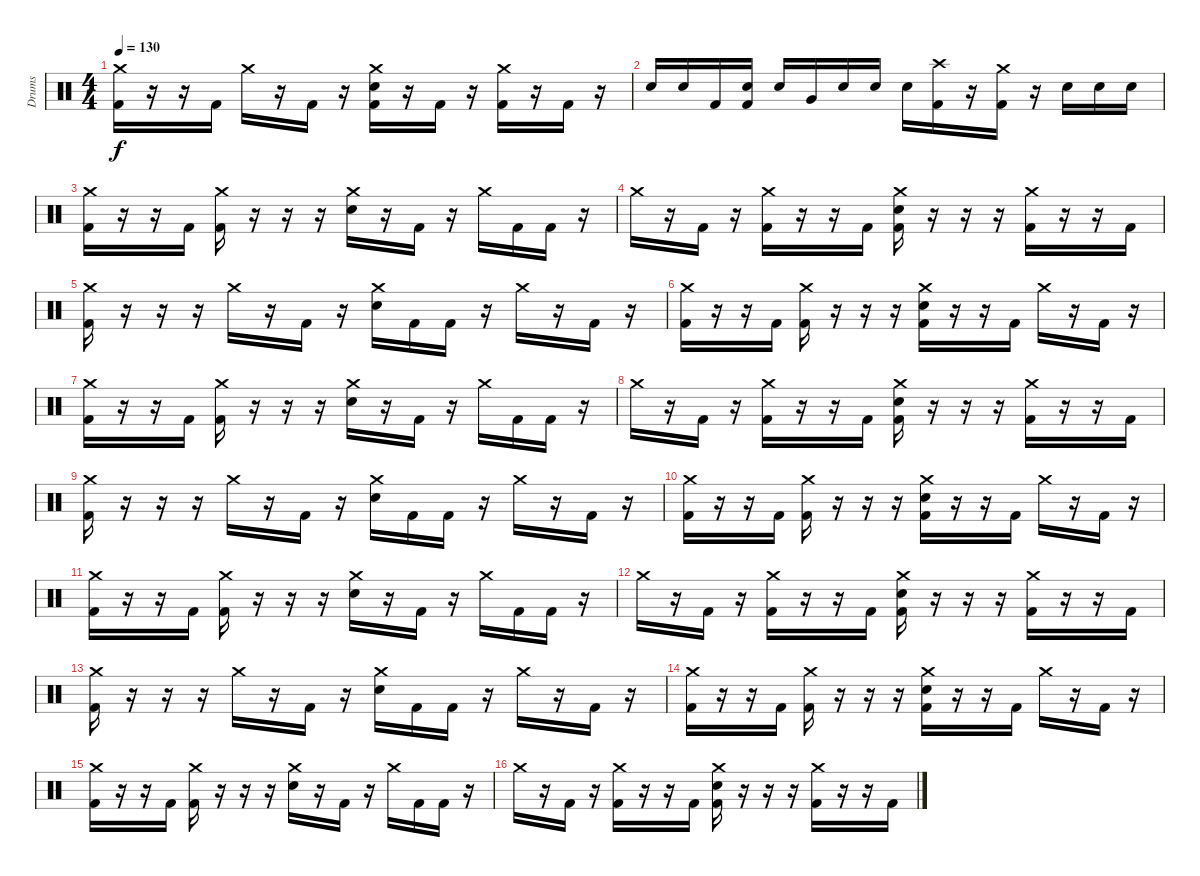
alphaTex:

\track ("Drums" "Drums") {instrument percussion}
\staff {score}
\articulation defaults
\ts (4 4)
\tempo 130
\clef neutral
\ks c
("Crash medium (hit)" "Kick (hit) 2").16{dy f} r.16 r.16 "Kick (hit) 2".16 "Crash medium (hit)".16 r.16 "Kick (hit) 2".16 r.16 ("Crash medium (hit)" "Electric Snare (hit)" "Kick (hit) 2").16 r.16 "Kick (hit) 2".16 r.16 ("Crash medium (hit)" "Kick (hit) 2").16 r.16 "Kick (hit) 2".16 r.16 |
"Electric Snare (hit)".16 "Electric Snare (hit)".16 "Kick (hit) 2".16 ("Electric Snare (hit)" "Kick (hit) 2").16 "Electric Snare (hit)".16 "Very Low Tom (hit)".16 "Electric Snare (hit)".16 "Electric Snare (hit)".16 "Electric Snare (hit)".16 ("Crash high (hit)" "Kick (hit) 2").16 r.16 ("Crash medium (hit)" "Kick (hit) 2").16 r.16 "Electric Snare (hit)".16 "Electric Snare (hit)".16 "Electric Snare (hit)".16 |
("Crash medium (hit)" "Kick (hit) 2").16 r.16 r.16 "Kick (hit) 2".16 ("Crash medium (hit)" "Kick (hit) 2").16 r.16 r.16 r.16 ("Crash medium (hit)" "Electric Snare (hit)").16 r.16 "Kick (hit) 2".16 r.16 "Crash medium (hit)".16 "Kick (hit) 2".16 "Kick (hit) 2".16 r.16 |
"Crash medium (hit)".16 r.16 "Kick (hit) 2".16 r.16 ("Crash medium (hit)" "Kick (hit) 2").16 r.16 r.16 "Kick (hit) 2".16 ("Crash medium (hit)" "Electric Snare (hit)" "Kick (hit) 2").16 r.16 r.16 r.16 ("Crash medium (hit)" "Kick (hit) 2").16 r.16 r.16 "Kick (hit) 2".16 |
("Crash medium (hit)" "Kick (hit) 2").16 r.16 r.16 r.16 "Crash medium (hit)".16 r.16 "Kick (hit) 2".16 r.16 ("Crash medium (hit)" "Electric Snare (hit)").16 "Kick (hit) 2".16 "Kick (hit) 2".16 r.16 "Crash medium (hit)".16 r.16 "Kick (hit) 2".16 r.16 |
("Crash medium (hit)" "Kick (hit) 2").16 r.16 r.16 "Kick (hit) 2".16 ("Crash medium (hit)" "Kick (hit) 2").16 r.16 r.16 r.16 ("Crash medium (hit)" "Electric Snare (hit)" "Kick (hit) 2").16 r.16 r.16 "Kick (hit) 2".16 "Crash medium (hit)".16 r.16 "Kick (hit) 2".16 r.16 |
("Crash medium (hit)" "Kick (hit) 2").16 r.16 r.16 "Kick (hit) 2".16 ("Crash medium (hit)" "Kick (hit) 2").16 r.16 r.16 r.16 ("Crash medium (hit)" "Electric Snare (hit)").16 r.16 "Kick (hit) 2".16 r.16 "Crash medium (hit)".16 "Kick (hit) 2".16 "Kick (hit) 2".16 r.16 |
"Crash medium (hit)".16 r.16 "Kick (hit) 2".16 r.16 ("Crash medium (hit)" "Kick (hit) 2").16 r.16 r.16 "Kick (hit) 2".16 ("Crash medium (hit)" "Electric Snare (hit)" "Kick (hit) 2").16 r.16 r.16 r.16 ("Crash medium (hit)" "Kick (hit) 2").16 r.16 r.16 "Kick (hit) 2".16 |
("Crash medium (hit)" "Kick (hit) 2").16 r.16 r.16 r.16 "Crash medium (hit)".16 r.16 "Kick (hit) 2".16 r.16 ("Crash medium (hit)" "Electric Snare (hit)").16 "Kick (hit) 2".16 "Kick (hit) 2".16 r.16 "Crash medium (hit)".16 r.16 "Kick (hit) 2".16 r.16 |
("Crash medium (hit)" "Kick (hit) 2").16 r.16 r.16 "Kick (hit) 2".16 ("Crash medium (hit)" "Kick (hit) 2").16 r.16 r.16 r.16 ("Crash medium (hit)" "Electric Snare (hit)" "Kick (hit) 2").16 r.16 r.16 "Kick (hit) 2".16 "Crash medium (hit)".16 r.16 "Kick (hit) 2".16 r.16 |
("Crash medium (hit)" "Kick (hit) 2").16 r.16 r.16 "Kick (hit) 2".16 ("Crash medium (hit)" "Kick (hit) 2").16 r.16 r.16 r.16 ("Crash medium (hit)" "Electric Snare (hit)").16 r.16 "Kick (hit) 2".16 r.16 "Crash medium (hit)".16 "Kick (hit) 2".16 "Kick (hit) 2".16 r.16 |
"Crash medium (hit)".16 r.16 "Kick (hit) 2".16 r.16 ("Crash medium (hit)" "Kick (hit) 2").16 r.16 r.16 "Kick (hit) 2".16 ("Crash medium (hit)" "Electric Snare (hit)" "Kick (hit) 2").16 r.16 r.16 r.16 ("Crash medium (hit)" "Kick (hit) 2").16 r.16 r.16 "Kick (hit) 2".16 |
("Crash medium (hit)" "Kick (hit) 2").16 r.16 r.16 r.16 "Crash medium (hit)".16 r.16 "Kick (hit) 2".16 r.16 ("Crash medium (hit)" "Electric Snare (hit)").16 "Kick (hit) 2".16 "Kick (hit) 2".16 r.16 "Crash medium (hit)".16 r.16 "Kick (hit) 2".16 r.16 |
("Crash medium (hit)" "Kick (hit) 2").16 r.16 r.16 "Kick (hit) 2".16 ("Crash medium (hit)" "Kick (hit) 2").16 r.16 r.16 r.16 ("Crash medium (hit)" "Electric Snare (hit)" "Kick (hit) 2").16 r.16 r.16 "Kick (hit) 2".16 "Crash medium (hit)".16 r.16 "Kick (hit) 2".16 r.16 |
("Crash medium (hit)" "Kick (hit) 2").16 r.16 r.16 "Kick (hit) 2".16 ("Crash medium (hit)" "Kick (hit) 2").16 r.16 r.16 r.16 ("Crash medium (hit)" "Electric Snare (hit)").16 r.16 "Kick (hit) 2".16 r.16 "Crash medium (hit)".16 "Kick (hit) 2".16 "Kick (hit) 2".16 r.16 |
"Crash medium (hit)".16 r.16 "Kick (hit) 2".16 r.16 ("Crash medium (hit)" "Kick (hit) 2").16 r.16 r.16 "Kick (hit) 2".16 ("Crash medium (hit)" "Electric Snare (hit)" "Kick (hit) 2").16 r.16 r.16 r.16 ("Crash medium (hit)" "Kick (hit) 2").16 r.16 r.16 "Kick (hit) 2".16
